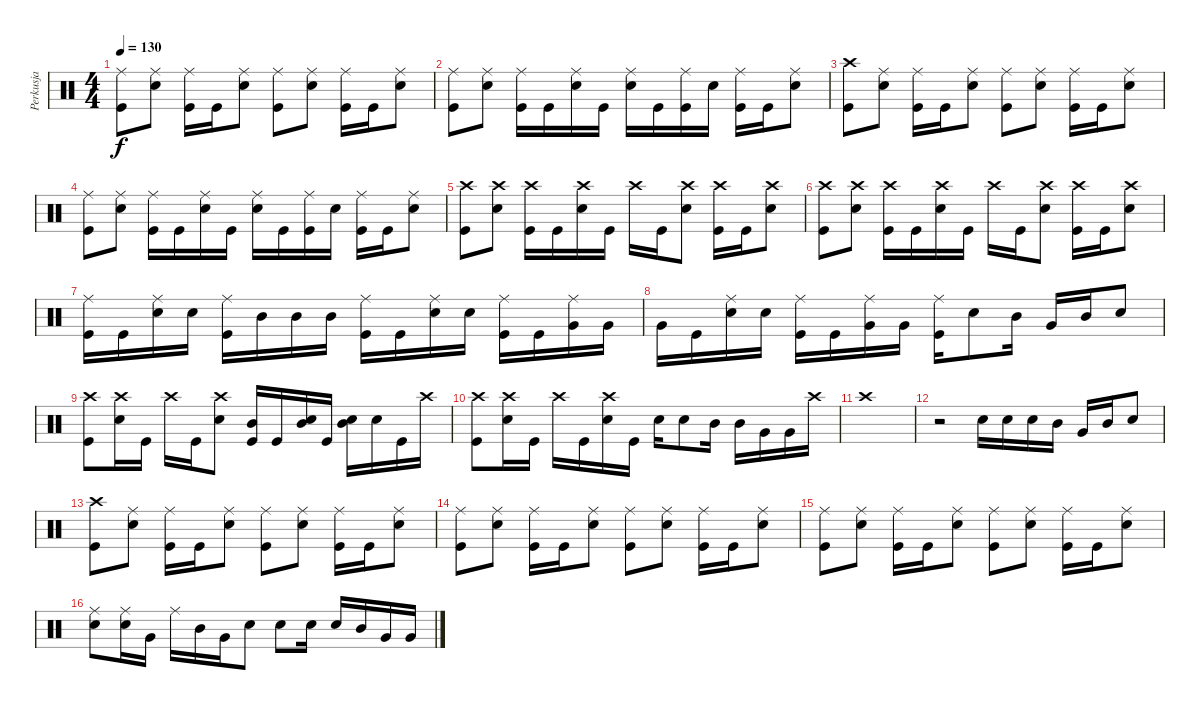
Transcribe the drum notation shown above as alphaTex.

\track ("Perkusja" "Perkusja") {instrument percussion}
\staff {score}
\articulation defaults
\ts (4 4)
\tempo 130
\clef neutral
\ks c
("Ride (middle)" "Kick (hit)").8{dy f} ("Ride (middle)" "Snare (hit) 2").8 ("Ride (middle)" "Kick (hit)").16 "Kick (hit)".16 ("Ride (middle)" "Snare (hit) 2").8 ("Ride (middle)" "Kick (hit)").8 ("Ride (middle)" "Snare (hit) 2").8 ("Ride (middle)" "Kick (hit)").16 "Kick (hit)".16 ("Ride (middle)" "Snare (hit) 2").8 |
("Ride (middle)" "Kick (hit)").8 ("Ride (middle)" "Snare (hit) 2").8 ("Ride (middle)" "Kick (hit)").16 "Kick (hit)".16 ("Ride (middle)" "Snare (hit) 2").16 "Kick (hit)".16 ("Ride (middle)" "Snare (hit) 2").16 "Kick (hit)".16 ("Ride (middle)" "Kick (hit)").16 "Snare (hit) 2".16 ("Ride (middle)" "Kick (hit)").16 "Kick (hit)".16 ("Ride (middle)" "Snare (hit) 2").8 |
("Crash high (hit)" "Kick (hit)").8 ("Ride (middle)" "Snare (hit) 2").8 ("Ride (middle)" "Kick (hit)").16 "Kick (hit)".16 ("Ride (middle)" "Snare (hit) 2").8 ("Ride (middle)" "Kick (hit)").8 ("Ride (middle)" "Snare (hit) 2").8 ("Ride (middle)" "Kick (hit)").16 "Kick (hit)".16 ("Ride (middle)" "Snare (hit) 2").8 |
("Ride (middle)" "Kick (hit)").8 ("Ride (middle)" "Snare (hit) 2").8 ("Ride (middle)" "Kick (hit)").16 "Kick (hit)".16 ("Ride (middle)" "Snare (hit) 2").16 "Kick (hit)".16 ("Ride (middle)" "Snare (hit) 2").16 "Kick (hit)".16 ("Ride (middle)" "Kick (hit)").16 "Snare (hit) 2".16 ("Ride (middle)" "Kick (hit)").16 "Kick (hit)".16 ("Ride (middle)" "Snare (hit) 2").8 |
("Crash high (hit)" "Kick (hit)").8 ("Crash high (hit)" "Snare (hit) 2").8 ("Crash high (hit)" "Kick (hit)").16 "Kick (hit)".16 ("Crash high (hit)" "Snare (hit) 2").16 "Kick (hit)".16 "Crash high (hit)".16 "Kick (hit)".16 ("Crash high (hit)" "Snare (hit) 2").8 ("Crash high (hit)" "Kick (hit)").16 "Kick (hit)".16 ("Crash high (hit)" "Snare (hit) 2").8 |
("Crash high (hit)" "Kick (hit)").8 ("Crash high (hit)" "Snare (hit) 2").8 ("Crash high (hit)" "Kick (hit)").16 "Kick (hit)".16 ("Crash high (hit)" "Snare (hit) 2").16 "Kick (hit)".16 "Crash high (hit)".16 "Kick (hit)".16 ("Crash high (hit)" "Snare (hit) 2").8 ("Crash high (hit)" "Kick (hit)").16 "Kick (hit)".16 ("Crash high (hit)" "Snare (hit) 2").8 |
("Ride (middle)" "Kick (hit)").16 "Kick (hit)".16 ("Ride (middle)" "Snare (hit) 2").16 "Snare (hit) 2".16 ("Ride (middle)" "Kick (hit)").16 "Mid Tom (hit)".16 "Mid Tom (hit)".16 "Mid Tom (hit)".16 ("Ride (middle)" "Kick (hit)").16 "Kick (hit)".16 ("Ride (middle)" "Snare (hit) 2").16 "Snare (hit) 2".16 ("Ride (middle)" "Kick (hit)").16 "Kick (hit)".16 ("Ride (middle)" "Very Low Tom (hit)").16 "Very Low Tom (hit)".16 |
"Very Low Tom (hit)".16 "Kick (hit)".16 ("Ride (middle)" "Snare (hit) 2").16 "Snare (hit) 2".16 ("Ride (middle)" "Kick (hit)").16 "Kick (hit)".16 ("Ride (middle)" "Very Low Tom (hit)").16 "Very Low Tom (hit)".16 ("Ride (middle)" "Kick (hit)").16 "Snare (hit) 2".8 "Mid Tom (hit)".16 "Very Low Tom (hit)".16 "Mid Tom (hit)".16 "Snare (hit) 2".8 |
("Crash high (hit)" "Kick (hit)").8 ("Crash high (hit)" "Snare (hit) 2").16 "Kick (hit)".16 "Crash high (hit)".16 "Kick (hit)".16 ("Crash high (hit)" "Snare (hit) 2").8 ("Mid Tom (hit)" "Kick (hit)").16 "Kick (hit)".16 ("Mid Tom (hit)" "Snare (hit) 2").16 "Kick (hit)".16 ("Mid Tom (hit)" "Snare (hit) 2").16 "Snare (hit) 2".16 "Kick (hit)".16 "Crash high (hit)".16 |
("Crash high (hit)" "Kick (hit)").8 ("Crash high (hit)" "Snare (hit) 2").16 "Kick (hit)".16 "Crash high (hit)".16 "Kick (hit)".16 ("Crash high (hit)" "Snare (hit) 2").16 "Kick (hit)".16 "Snare (hit) 2".16 "Snare (hit) 2".8 "Mid Tom (hit)".16 "Mid Tom (hit)".16 "Very Low Tom (hit)".16 "Very Low Tom (hit)".16 "Crash high (hit)".16 |
"Crash high (hit)".1 |
r.2 "Snare (hit) 2".16 "Snare (hit) 2".16 "Snare (hit) 2".16 "Mid Tom (hit)".16 "Very Low Tom (hit)".16 "Mid Tom (hit)".16 "Snare (hit) 2".8 |
("Crash high (hit)" "Kick (hit)").8 ("Ride (middle)" "Snare (hit) 2").8 ("Ride (middle)" "Kick (hit)").16 "Kick (hit)".16 ("Ride (middle)" "Snare (hit) 2").8 ("Ride (middle)" "Kick (hit)").8 ("Ride (middle)" "Snare (hit) 2").8 ("Ride (middle)" "Kick (hit)").16 "Kick (hit)".16 ("Ride (middle)" "Snare (hit) 2").8 |
("Ride (middle)" "Kick (hit)").8 ("Ride (middle)" "Snare (hit) 2").8 ("Ride (middle)" "Kick (hit)").16 "Kick (hit)".16 ("Ride (middle)" "Snare (hit) 2").8 ("Ride (middle)" "Kick (hit)").8 ("Ride (middle)" "Snare (hit) 2").8 ("Ride (middle)" "Kick (hit)").16 "Kick (hit)".16 ("Ride (middle)" "Snare (hit) 2").8 |
("Ride (middle)" "Kick (hit)").8 ("Ride (middle)" "Snare (hit) 2").8 ("Ride (middle)" "Kick (hit)").16 "Kick (hit)".16 ("Ride (middle)" "Snare (hit) 2").8 ("Ride (middle)" "Kick (hit)").8 ("Ride (middle)" "Snare (hit) 2").8 ("Ride (middle)" "Kick (hit)").16 "Kick (hit)".16 ("Ride (middle)" "Snare (hit) 2").8 |
("Ride (middle)" "Snare (hit) 2").8 ("Ride (middle)" "Snare (hit) 2").16 "Very Low Tom (hit)".16 "Ride (middle)".16 "Mid Tom (hit)".16 "Very Low Tom (hit)".16 "Snare (hit) 2".8 "Snare (hit) 2".8 "Snare (hit) 2".16 "Snare (hit) 2".16 "Mid Tom (hit)".16 "Very Low Tom (hit)".16 "Very Low Tom (hit)".16
